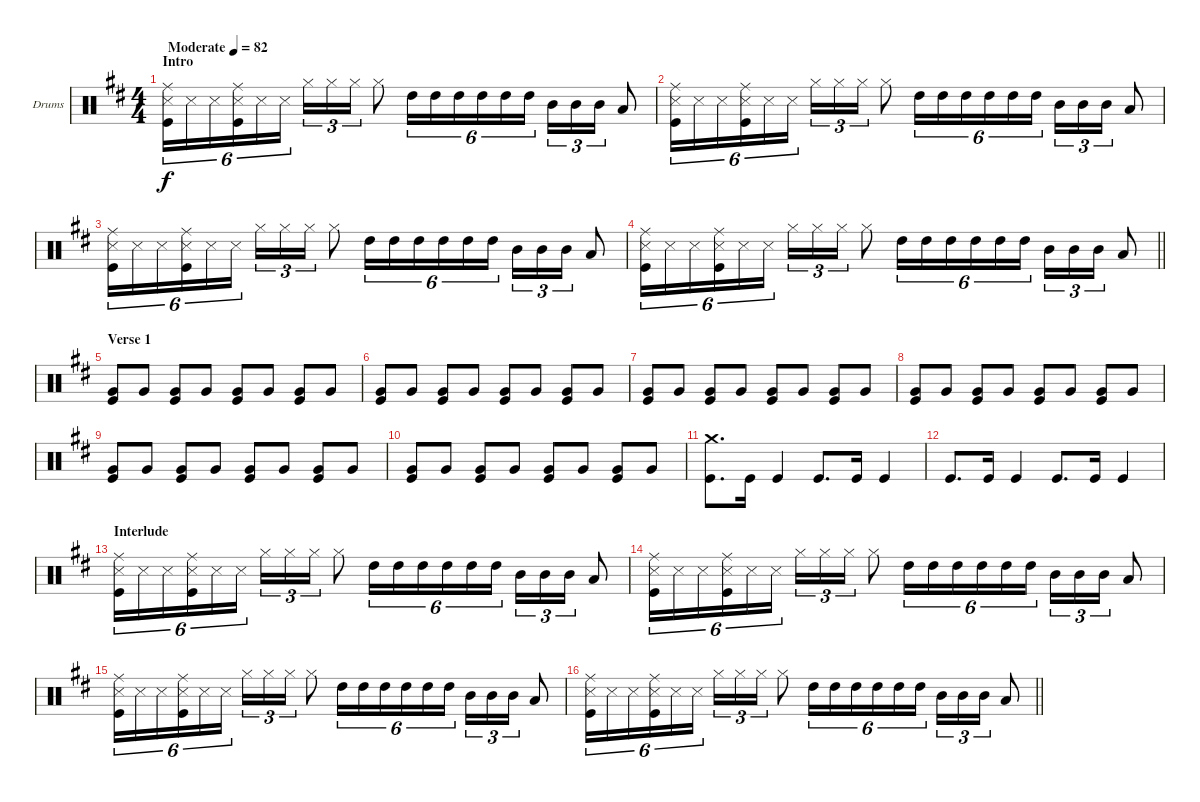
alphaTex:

\bracketExtendMode groupsimilarinstruments
\firstSystemTrackNameOrientation horizontal
\otherSystemsTrackNameOrientation horizontal
\track ("Drumkit" "Drums") {instrument percussion}
\staff {score}
\articulation defaults
\ts (4 4)
\beaming (8 2 2 2 2)
\section ("" "Intro")
\tempo (82 "Moderate")
\clef neutral
\ks d
("Snare (side stick) 3" "Kick (hit)" "Ride (middle)").16{tu (6 4) dy f} "Snare (side stick) 3".16{tu (6 4)} "Snare (side stick) 3".16{tu (6 4)} ("Snare (side stick) 3" "Kick (hit)" "Ride (middle)").16{tu (6 4)} "Snare (side stick) 3".16{tu (6 4)} "Snare (side stick) 3".16{tu (6 4)} "Hi-Hat (closed)".16{tu (3 2)} "Hi-Hat (closed)".16{tu (3 2)} "Hi-Hat (closed)".16{tu (3 2)} "Hi-Hat (closed)".8 "High Tom (hit)".16{tu (6 4)} "High Tom (hit)".16{tu (6 4)} "High Tom (hit)".16{tu (6 4)} "High Tom (hit)".16{tu (6 4)} "High Tom (hit)".16{tu (6 4)} "High Tom (hit)".16{tu (6 4)} "Mid Tom (hit)".16{tu (3 2)} "Mid Tom (hit)".16{tu (3 2)} "Mid Tom (hit)".16{tu (3 2)} "Low Tom (hit)".8 |
("Snare (side stick) 3" "Kick (hit)" "Ride (middle)").16{tu (6 4)} "Snare (side stick) 3".16{tu (6 4)} "Snare (side stick) 3".16{tu (6 4)} ("Snare (side stick) 3" "Kick (hit)" "Ride (middle)").16{tu (6 4)} "Snare (side stick) 3".16{tu (6 4)} "Snare (side stick) 3".16{tu (6 4)} "Hi-Hat (closed)".16{tu (3 2)} "Hi-Hat (closed)".16{tu (3 2)} "Hi-Hat (closed)".16{tu (3 2)} "Hi-Hat (closed)".8 "High Tom (hit)".16{tu (6 4)} "High Tom (hit)".16{tu (6 4)} "High Tom (hit)".16{tu (6 4)} "High Tom (hit)".16{tu (6 4)} "High Tom (hit)".16{tu (6 4)} "High Tom (hit)".16{tu (6 4)} "Mid Tom (hit)".16{tu (3 2)} "Mid Tom (hit)".16{tu (3 2)} "Mid Tom (hit)".16{tu (3 2)} "Low Tom (hit)".8 |
("Snare (side stick) 3" "Kick (hit)" "Ride (middle)").16{tu (6 4)} "Snare (side stick) 3".16{tu (6 4)} "Snare (side stick) 3".16{tu (6 4)} ("Snare (side stick) 3" "Kick (hit)" "Ride (middle)").16{tu (6 4)} "Snare (side stick) 3".16{tu (6 4)} "Snare (side stick) 3".16{tu (6 4)} "Hi-Hat (closed)".16{tu (3 2)} "Hi-Hat (closed)".16{tu (3 2)} "Hi-Hat (closed)".16{tu (3 2)} "Hi-Hat (closed)".8 "High Tom (hit)".16{tu (6 4)} "High Tom (hit)".16{tu (6 4)} "High Tom (hit)".16{tu (6 4)} "High Tom (hit)".16{tu (6 4)} "High Tom (hit)".16{tu (6 4)} "High Tom (hit)".16{tu (6 4)} "Mid Tom (hit)".16{tu (3 2)} "Mid Tom (hit)".16{tu (3 2)} "Mid Tom (hit)".16{tu (3 2)} "Low Tom (hit)".8 |
\barLineRight lightlight
("Snare (side stick) 3" "Kick (hit)" "Ride (middle)").16{tu (6 4)} "Snare (side stick) 3".16{tu (6 4)} "Snare (side stick) 3".16{tu (6 4)} ("Snare (side stick) 3" "Kick (hit)" "Ride (middle)").16{tu (6 4)} "Snare (side stick) 3".16{tu (6 4)} "Snare (side stick) 3".16{tu (6 4)} "Hi-Hat (closed)".16{tu (3 2)} "Hi-Hat (closed)".16{tu (3 2)} "Hi-Hat (closed)".16{tu (3 2)} "Hi-Hat (closed)".8 "High Tom (hit)".16{tu (6 4)} "High Tom (hit)".16{tu (6 4)} "High Tom (hit)".16{tu (6 4)} "High Tom (hit)".16{tu (6 4)} "High Tom (hit)".16{tu (6 4)} "High Tom (hit)".16{tu (6 4)} "Mid Tom (hit)".16{tu (3 2)} "Mid Tom (hit)".16{tu (3 2)} "Mid Tom (hit)".16{tu (3 2)} "Low Tom (hit)".8 |
\section ("" "Verse 1")
("Very Low Tom (hit)" "Kick (hit)").8 "Very Low Tom (hit)".8 ("Very Low Tom (hit)" "Kick (hit)").8 "Very Low Tom (hit)".8 ("Very Low Tom (hit)" "Kick (hit)").8 "Very Low Tom (hit)".8 ("Very Low Tom (hit)" "Kick (hit)").8 "Very Low Tom (hit)".8 |
("Very Low Tom (hit)" "Kick (hit)").8 "Very Low Tom (hit)".8 ("Very Low Tom (hit)" "Kick (hit)").8 "Very Low Tom (hit)".8 ("Very Low Tom (hit)" "Kick (hit)").8 "Very Low Tom (hit)".8 ("Very Low Tom (hit)" "Kick (hit)").8 "Very Low Tom (hit)".8 |
("Very Low Tom (hit)" "Kick (hit)").8 "Very Low Tom (hit)".8 ("Very Low Tom (hit)" "Kick (hit)").8 "Very Low Tom (hit)".8 ("Very Low Tom (hit)" "Kick (hit)").8 "Very Low Tom (hit)".8 ("Very Low Tom (hit)" "Kick (hit)").8 "Very Low Tom (hit)".8 |
("Very Low Tom (hit)" "Kick (hit)").8 "Very Low Tom (hit)".8 ("Very Low Tom (hit)" "Kick (hit)").8 "Very Low Tom (hit)".8 ("Very Low Tom (hit)" "Kick (hit)").8 "Very Low Tom (hit)".8 ("Very Low Tom (hit)" "Kick (hit)").8 "Very Low Tom (hit)".8 |
("Very Low Tom (hit)" "Kick (hit)").8 "Very Low Tom (hit)".8 ("Very Low Tom (hit)" "Kick (hit)").8 "Very Low Tom (hit)".8 ("Very Low Tom (hit)" "Kick (hit)").8 "Very Low Tom (hit)".8 ("Very Low Tom (hit)" "Kick (hit)").8 "Very Low Tom (hit)".8 |
("Very Low Tom (hit)" "Kick (hit)").8 "Very Low Tom (hit)".8 ("Very Low Tom (hit)" "Kick (hit)").8 "Very Low Tom (hit)".8 ("Very Low Tom (hit)" "Kick (hit)").8 "Very Low Tom (hit)".8 ("Very Low Tom (hit)" "Kick (hit)").8 "Very Low Tom (hit)".8 |
("Crash medium (hit)" "Kick (hit)").8{d} "Kick (hit)".16 "Kick (hit)".4 "Kick (hit)".8{d} "Kick (hit)".16 "Kick (hit)".4 |
"Kick (hit)".8{d} "Kick (hit)".16 "Kick (hit)".4 "Kick (hit)".8{d} "Kick (hit)".16 "Kick (hit)".4 |
\section ("" "Interlude")
("Snare (side stick) 3" "Kick (hit)" "Ride (middle)").16{tu (6 4)} "Snare (side stick) 3".16{tu (6 4)} "Snare (side stick) 3".16{tu (6 4)} ("Snare (side stick) 3" "Kick (hit)" "Ride (middle)").16{tu (6 4)} "Snare (side stick) 3".16{tu (6 4)} "Snare (side stick) 3".16{tu (6 4)} "Hi-Hat (closed)".16{tu (3 2)} "Hi-Hat (closed)".16{tu (3 2)} "Hi-Hat (closed)".16{tu (3 2)} "Hi-Hat (closed)".8 "High Tom (hit)".16{tu (6 4)} "High Tom (hit)".16{tu (6 4)} "High Tom (hit)".16{tu (6 4)} "High Tom (hit)".16{tu (6 4)} "High Tom (hit)".16{tu (6 4)} "High Tom (hit)".16{tu (6 4)} "Mid Tom (hit)".16{tu (3 2)} "Mid Tom (hit)".16{tu (3 2)} "Mid Tom (hit)".16{tu (3 2)} "Low Tom (hit)".8 |
("Snare (side stick) 3" "Kick (hit)" "Ride (middle)").16{tu (6 4)} "Snare (side stick) 3".16{tu (6 4)} "Snare (side stick) 3".16{tu (6 4)} ("Snare (side stick) 3" "Kick (hit)" "Ride (middle)").16{tu (6 4)} "Snare (side stick) 3".16{tu (6 4)} "Snare (side stick) 3".16{tu (6 4)} "Hi-Hat (closed)".16{tu (3 2)} "Hi-Hat (closed)".16{tu (3 2)} "Hi-Hat (closed)".16{tu (3 2)} "Hi-Hat (closed)".8 "High Tom (hit)".16{tu (6 4)} "High Tom (hit)".16{tu (6 4)} "High Tom (hit)".16{tu (6 4)} "High Tom (hit)".16{tu (6 4)} "High Tom (hit)".16{tu (6 4)} "High Tom (hit)".16{tu (6 4)} "Mid Tom (hit)".16{tu (3 2)} "Mid Tom (hit)".16{tu (3 2)} "Mid Tom (hit)".16{tu (3 2)} "Low Tom (hit)".8 |
("Snare (side stick) 3" "Kick (hit)" "Ride (middle)").16{tu (6 4)} "Snare (side stick) 3".16{tu (6 4)} "Snare (side stick) 3".16{tu (6 4)} ("Snare (side stick) 3" "Kick (hit)" "Ride (middle)").16{tu (6 4)} "Snare (side stick) 3".16{tu (6 4)} "Snare (side stick) 3".16{tu (6 4)} "Hi-Hat (closed)".16{tu (3 2)} "Hi-Hat (closed)".16{tu (3 2)} "Hi-Hat (closed)".16{tu (3 2)} "Hi-Hat (closed)".8 "High Tom (hit)".16{tu (6 4)} "High Tom (hit)".16{tu (6 4)} "High Tom (hit)".16{tu (6 4)} "High Tom (hit)".16{tu (6 4)} "High Tom (hit)".16{tu (6 4)} "High Tom (hit)".16{tu (6 4)} "Mid Tom (hit)".16{tu (3 2)} "Mid Tom (hit)".16{tu (3 2)} "Mid Tom (hit)".16{tu (3 2)} "Low Tom (hit)".8 |
\barLineRight lightlight
("Snare (side stick) 3" "Kick (hit)" "Ride (middle)").16{tu (6 4)} "Snare (side stick) 3".16{tu (6 4)} "Snare (side stick) 3".16{tu (6 4)} ("Snare (side stick) 3" "Kick (hit)" "Ride (middle)").16{tu (6 4)} "Snare (side stick) 3".16{tu (6 4)} "Snare (side stick) 3".16{tu (6 4)} "Hi-Hat (closed)".16{tu (3 2)} "Hi-Hat (closed)".16{tu (3 2)} "Hi-Hat (closed)".16{tu (3 2)} "Hi-Hat (closed)".8 "High Tom (hit)".16{tu (6 4)} "High Tom (hit)".16{tu (6 4)} "High Tom (hit)".16{tu (6 4)} "High Tom (hit)".16{tu (6 4)} "High Tom (hit)".16{tu (6 4)} "High Tom (hit)".16{tu (6 4)} "Mid Tom (hit)".16{tu (3 2)} "Mid Tom (hit)".16{tu (3 2)} "Mid Tom (hit)".16{tu (3 2)} "Low Tom (hit)".8
